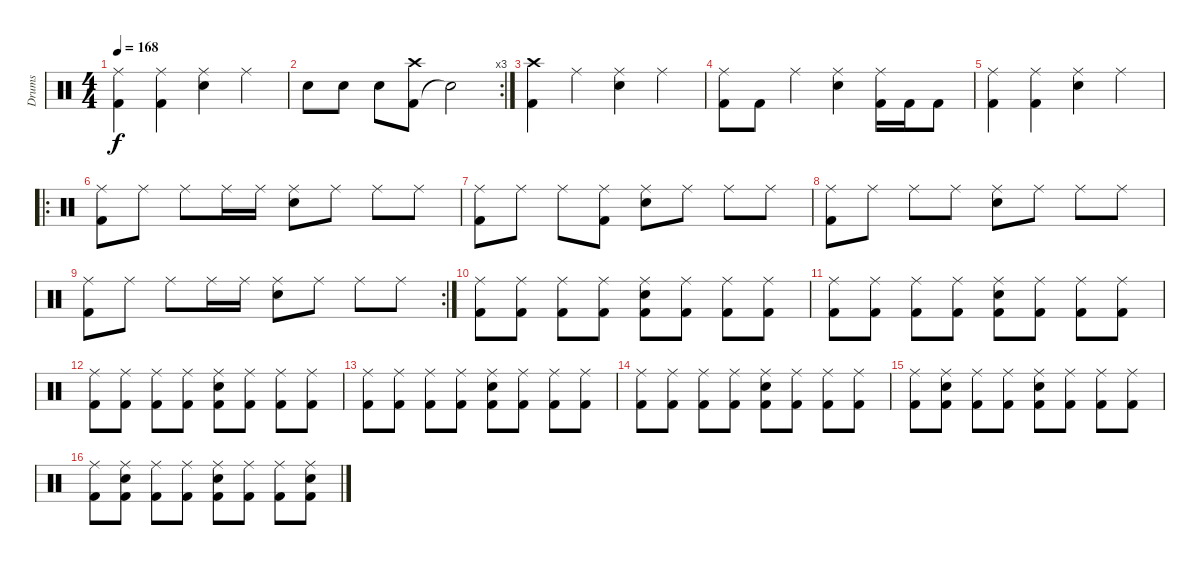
\track ("Drums" "Drums") {instrument percussion}
\staff {score}
\articulation defaults
\ts (4 4)
\tempo 168
\clef neutral
\ks c
("Kick (hit) 2" "Ride (middle)").4{dy f} ("Kick (hit) 2" "Ride (middle)").4 ("Snare (hit) 2" "Ride (middle)").4 "Ride (middle)".4 |
\rc 3 "Snare (hit) 2".8 "Snare (hit) 2".8 "Snare (hit) 2".8
("Kick (hit) 2" "Crash high (hit)").8 "Snare (hit)"{t}.2 |
("Kick (hit) 2" "Crash high (hit)").4 "Ride (middle)".4 ("Snare (hit) 2" "Ride (middle)").4 "Ride (middle)".4 |
("Kick (hit) 2" "Ride (middle)").8 "Kick (hit) 2".8 "Ride (middle)".4 ("Snare (hit) 2" "Ride (middle)").4 ("Kick (hit) 2" "Ride (middle)").16 "Kick (hit) 2".16 "Kick (hit) 2".8 |
("Kick (hit) 2" "Ride (middle)").4 ("Kick (hit) 2" "Ride (middle)").4 ("Snare (hit) 2" "Ride (middle)").4 "Ride (middle)".4 |
\ro
("Kick (hit) 2" "Ride (middle)").8 "Ride (middle)".8 "Ride (middle)".8 "Ride (middle)".16 "Ride (middle)".16 ("Snare (hit) 2" "Ride (middle)").8 "Ride (middle)".8 "Ride (middle)".8 "Ride (middle)".8 |
("Kick (hit) 2" "Ride (middle)").8 "Ride (middle)".8 "Ride (middle)".8 ("Kick (hit) 2" "Ride (middle)").8 ("Snare (hit) 2" "Ride (middle)").8 "Ride (middle)".8 "Ride (middle)".8 "Ride (middle)".8 |
("Kick (hit) 2" "Ride (middle)").8 "Ride (middle)".8 "Ride (middle)".8 "Ride (middle)".8 ("Snare (hit) 2" "Ride (middle)").8 "Ride (middle)".8 "Ride (middle)".8 "Ride (middle)".8 |
\rc 2
("Kick (hit) 2" "Ride (middle)").8 "Ride (middle)".8 "Ride (middle)".8 "Ride (middle)".16 "Ride (middle)".16 ("Snare (hit) 2" "Ride (middle)").8 "Ride (middle)".8 "Ride (middle)".8 "Ride (middle)".8 |
("Kick (hit) 2" "Ride (middle)").8 ("Kick (hit) 2" "Ride (middle)").8 ("Kick (hit) 2" "Ride (middle)").8 ("Kick (hit) 2" "Ride (middle)").8 ("Kick (hit) 2" "Snare (hit) 2" "Ride (middle)").8 ("Kick (hit) 2" "Ride (middle)").8 ("Kick (hit) 2" "Ride (middle)").8 ("Kick (hit) 2" "Ride (middle)").8 |
("Kick (hit) 2" "Ride (middle)").8 ("Kick (hit) 2" "Ride (middle)").8 ("Kick (hit) 2" "Ride (middle)").8 ("Kick (hit) 2" "Ride (middle)").8 ("Kick (hit) 2" "Snare (hit) 2" "Ride (middle)").8 ("Kick (hit) 2" "Ride (middle)").8 ("Kick (hit) 2" "Ride (middle)").8 ("Kick (hit) 2" "Ride (middle)").8 |
("Kick (hit) 2" "Ride (middle)").8 ("Kick (hit) 2" "Ride (middle)").8 ("Kick (hit) 2" "Ride (middle)").8 ("Kick (hit) 2" "Ride (middle)").8 ("Kick (hit) 2" "Snare (hit) 2" "Ride (middle)").8 ("Kick (hit) 2" "Ride (middle)").8 ("Kick (hit) 2" "Ride (middle)").8 ("Kick (hit) 2" "Ride (middle)").8 |
("Kick (hit) 2" "Ride (middle)").8 ("Kick (hit) 2" "Ride (middle)").8 ("Kick (hit) 2" "Ride (middle)").8 ("Kick (hit) 2" "Ride (middle)").8 ("Kick (hit) 2" "Snare (hit) 2" "Ride (middle)").8 ("Kick (hit) 2" "Ride (middle)").8 ("Kick (hit) 2" "Ride (middle)").8 ("Kick (hit) 2" "Ride (middle)").8 |
("Kick (hit) 2" "Ride (middle)").8 ("Kick (hit) 2" "Ride (middle)").8 ("Kick (hit) 2" "Ride (middle)").8 ("Kick (hit) 2" "Ride (middle)").8 ("Kick (hit) 2" "Snare (hit) 2" "Ride (middle)").8 ("Kick (hit) 2" "Ride (middle)").8 ("Kick (hit) 2" "Ride (middle)").8 ("Kick (hit) 2" "Ride (middle)").8 |
("Kick (hit) 2" "Ride (middle)").8 ("Kick (hit) 2" "Snare (hit) 2" "Ride (middle)").8 ("Kick (hit) 2" "Ride (middle)").8 ("Kick (hit) 2" "Ride (middle)").8 ("Kick (hit) 2" "Snare (hit) 2" "Ride (middle)").8 ("Kick (hit) 2" "Ride (middle)").8 ("Kick (hit) 2" "Ride (middle)").8 ("Kick (hit) 2" "Ride (middle)").8 |
("Kick (hit) 2" "Ride (middle)").8 ("Kick (hit) 2" "Snare (hit) 2" "Ride (middle)").8 ("Kick (hit) 2" "Ride (middle)").8 ("Kick (hit) 2" "Ride (middle)").8 ("Kick (hit) 2" "Snare (hit) 2" "Ride (middle)").8 ("Kick (hit) 2" "Ride (middle)").8 ("Kick (hit) 2" "Ride (middle)").8 ("Kick (hit) 2" "Snare (hit) 2" "Ride (middle)").8
